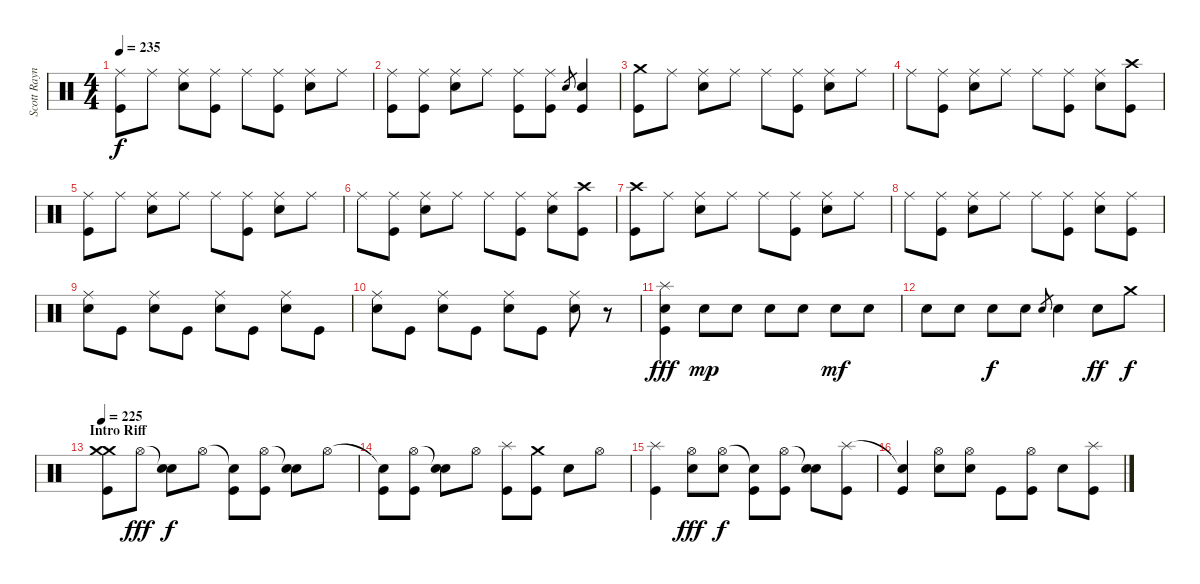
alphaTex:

\track ("Scott Raynor - Drums/Bateria" "Scott Rayn") {instrument percussion}
\staff {score}
\articulation defaults
\ts (4 4)
\tempo 235
\clef neutral
\ks c
("Ride (middle)" "Kick (hit)").8{dy f} "Ride (middle)".8 ("Ride (middle)" "Electric Snare (hit)").8 ("Ride (middle)" "Kick (hit)").8 "Ride (middle)".8 ("Ride (middle)" "Kick (hit)").8 ("Ride (middle)" "Electric Snare (hit)").8 "Ride (middle)".8 |
("Ride (middle)" "Kick (hit)").8 ("Ride (middle)" "Kick (hit)").8 ("Ride (middle)" "Electric Snare (hit)").8 "Ride (middle)".8 ("Ride (middle)" "Kick (hit)").8 ("Ride (middle)" "Kick (hit)").8 "Electric Snare (hit)".8{gr} ("Electric Snare (hit)" "Kick (hit)").4 |
("Crash medium (hit)" "Kick (hit)").8 "Ride (middle)".8 ("Ride (middle)" "Electric Snare (hit)").8 "Ride (middle)".8 "Ride (middle)".8 ("Ride (middle)" "Kick (hit)").8 ("Ride (middle)" "Electric Snare (hit)").8 "Ride (middle)".8 |
"Ride (middle)".8 ("Ride (middle)" "Kick (hit)").8 ("Ride (middle)" "Electric Snare (hit)").8 "Ride (middle)".8 "Ride (middle)".8 ("Ride (middle)" "Kick (hit)").8 ("Ride (middle)" "Electric Snare (hit)").8 ("Crash high (hit)" "Kick (hit)").8 |
("Ride (middle)" "Kick (hit)").8 "Ride (middle)".8 ("Ride (middle)" "Electric Snare (hit)").8 "Ride (middle)".8 "Ride (middle)".8 ("Ride (middle)" "Kick (hit)").8 ("Ride (middle)" "Electric Snare (hit)").8 "Ride (middle)".8 |
"Ride (middle)".8 ("Ride (middle)" "Kick (hit)").8 ("Ride (middle)" "Electric Snare (hit)").8 "Ride (middle)".8 "Ride (middle)".8 ("Ride (middle)" "Kick (hit)").8 ("Ride (middle)" "Electric Snare (hit)").8 ("Crash high (hit)" "Kick (hit)").8 |
("Crash high (hit)" "Kick (hit)").8 "Ride (middle)".8 ("Ride (middle)" "Electric Snare (hit)").8 "Ride (middle)".8 "Ride (middle)".8 ("Ride (middle)" "Kick (hit)").8 ("Ride (middle)" "Electric Snare (hit)").8 "Ride (middle)".8 |
"Ride (middle)".8 ("Ride (middle)" "Kick (hit)").8 ("Ride (middle)" "Electric Snare (hit)").8 "Ride (middle)".8 "Ride (middle)".8 ("Ride (middle)" "Kick (hit)").8 ("Ride (middle)" "Electric Snare (hit)").8 ("Ride (middle)" "Kick (hit)").8 |
("Ride (middle)" "Electric Snare (hit)").8 "Kick (hit)".8 ("Ride (middle)" "Electric Snare (hit)").8 "Kick (hit)".8 ("Ride (middle)" "Electric Snare (hit)").8 "Kick (hit)".8 ("Ride (middle)" "Electric Snare (hit)").8 "Kick (hit)".8 |
("Ride (middle)" "Electric Snare (hit)").8 "Kick (hit)".8 ("Ride (middle)" "Electric Snare (hit)").8 "Kick (hit)".8 ("Ride (middle)" "Electric Snare (hit)").8 "Kick (hit)".8 ("Ride (middle)" "Electric Snare (hit)").8 r.8 |
("Splash (hit)" "Electric Snare (hit)" "Kick (hit)").4{dy fff} "Electric Snare (hit)".8{dy mp} "Electric Snare (hit)".8 "Electric Snare (hit)".8 "Electric Snare (hit)".8 "Electric Snare (hit)".8{dy mf} "Electric Snare (hit)".8 |
"Electric Snare (hit)".8 "Electric Snare (hit)".8 "Electric Snare (hit)".8{dy f} "Electric Snare (hit)".8 "Electric Snare (hit)".8{gr} "Electric Snare (hit)".4 "Electric Snare (hit)".8{dy ff} "Crash medium (hit)".8{dy f} |
\section ("" "Intro Riff")
\tempo 225
("Crash medium (hit)" "Crash medium (hit)" "Kick (hit)").8 "Hi-Hat (open)".8{dy fff} ("Snare (hit)"{t} "Electric Snare (hit)").8{dy f} "Hi-Hat (open)".8 ("Snare (hit)"{t} "Kick (hit)").8 ("Hi-Hat (open)" "Kick (hit)").8 ("Snare (hit)"{t} "Electric Snare (hit)").8 "Hi-Hat (open)".8 |
("Snare (hit)"{t} "Kick (hit)").8 ("Hi-Hat (open)" "Kick (hit)").8 ("Snare (hit)"{t} "Electric Snare (hit)").8 "Hi-Hat (open)".8 ("Splash (hit)" "Kick (hit)").8 ("Crash medium (hit)" "Kick (hit)").8 "Electric Snare (hit)".8 "Hi-Hat (open)".8 |
("Splash (hit)" "Kick (hit)").4 ("Hi-Hat (open)" "Electric Snare (hit)").8{dy fff} ("Hi-Hat (open)" "Electric Snare (hit)").8{dy f} ("Snare (hit)"{t} "Kick (hit)").8 ("Hi-Hat (open)" "Kick (hit)").8 ("Snare (hit)"{t} "Electric Snare (hit)").8 ("Splash (hit)" "Kick (hit)").8 |
("Snare (hit)"{t} "Kick (hit)").4 ("Hi-Hat (open)" "Electric Snare (hit)").8 ("Hi-Hat (open)" "Electric Snare (hit)").8 "Kick (hit)".8 ("Hi-Hat (open)" "Kick (hit)").8 "Electric Snare (hit)".8 ("Splash (hit)" "Kick (hit)").8
